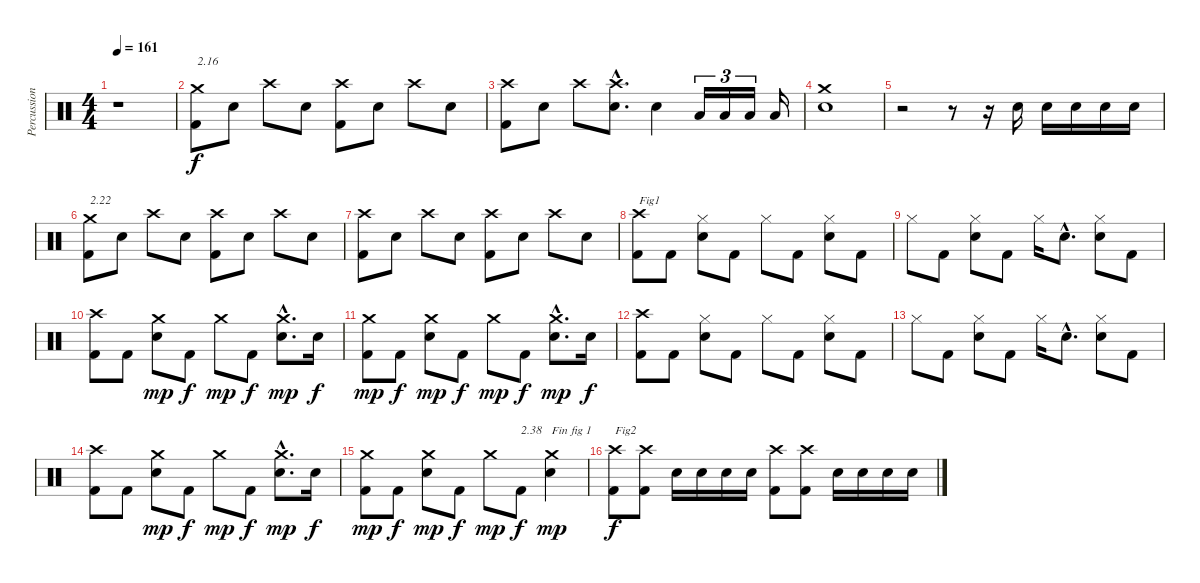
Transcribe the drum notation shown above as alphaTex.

\track ("Percussions" "Percussion") {instrument percussion}
\staff {score}
\articulation defaults
\ts (4 4)
\tempo 161
\clef neutral
\ks c
r.1{dy f} |
("Kick (hit) 2" "Crash medium (hit)").8{txt "2.16"} "Electric Snare (hit)".8 "Crash high (hit)".8 "Electric Snare (hit)".8 ("Kick (hit) 2" "Crash high (hit)").8 "Electric Snare (hit)".8 "Crash high (hit)".8 "Electric Snare (hit)".8 |
("Kick (hit) 2" "Crash high (hit)").8 "Electric Snare (hit)".8 "Crash high (hit)".8 ("Electric Snare (hit)"{hac} "Crash high (hit)"{hac}).8{d} "Electric Snare (hit)".4 "Low Floor Tom (hit)".16{tu (3 2)} "Low Floor Tom (hit)".16{tu (3 2)} "Low Floor Tom (hit)".16{tu (3 2)} "Low Floor Tom (hit)".16 |
("Electric Snare (hit)" "Crash medium (hit)").1 |
r.2 r.8 r.16 "Electric Snare (hit)".16 "Electric Snare (hit)".16 "Electric Snare (hit)".16 "Electric Snare (hit)".16 "Electric Snare (hit)".16 |
("Kick (hit) 2" "Crash medium (hit)").8{txt "2.22"} "Electric Snare (hit)".8 "Crash high (hit)".8 "Electric Snare (hit)".8 ("Kick (hit) 2" "Crash high (hit)").8 "Electric Snare (hit)".8 "Crash high (hit)".8 "Electric Snare (hit)".8 |
("Kick (hit) 2" "Crash high (hit)").8 "Electric Snare (hit)".8 "Crash high (hit)".8 "Electric Snare (hit)".8 ("Kick (hit) 2" "Crash high (hit)").8 "Electric Snare (hit)".8 "Crash high (hit)".8 "Electric Snare (hit)".8 |
("Kick (hit) 2" "Crash high (hit)").8{txt "Fig1"} "Kick (hit) 2".8 ("Electric Snare (hit)" "Hi-Hat (closed)").8 "Kick (hit) 2".8 "Hi-Hat (closed)".8 "Kick (hit) 2".8 ("Electric Snare (hit)" "Hi-Hat (closed)").8 "Kick (hit) 2".8 |
"Hi-Hat (closed)".8 "Kick (hit) 2".8 ("Electric Snare (hit)" "Hi-Hat (closed)").8 "Kick (hit) 2".8 "Hi-Hat (closed)".16 "Electric Snare (hit)"{hac}.8{d} ("Electric Snare (hit)" "Hi-Hat (closed)").8 "Kick (hit) 2".8 |
("Kick (hit) 2" "Crash high (hit)").8 "Kick (hit) 2".8 ("Electric Snare (hit)" "Crash medium (hit)").8{dy mp} "Kick (hit) 2".8{dy f} "Crash medium (hit)".8{dy mp} "Kick (hit) 2".8{dy f} ("Electric Snare (hit)"{hac} "Crash medium (hit)"{hac}).8{d dy mp} "Electric Snare (hit)".16{dy f} |
("Kick (hit) 2" "Crash medium (hit)").8{dy mp} "Kick (hit) 2".8{dy f} ("Electric Snare (hit)" "Crash medium (hit)").8{dy mp} "Kick (hit) 2".8{dy f} "Crash medium (hit)".8{dy mp} "Kick (hit) 2".8{dy f} ("Electric Snare (hit)"{hac} "Crash medium (hit)"{hac}).8{d dy mp} "Electric Snare (hit)".16{dy f} |
("Kick (hit) 2" "Crash high (hit)").8 "Kick (hit) 2".8 ("Electric Snare (hit)" "Hi-Hat (closed)").8 "Kick (hit) 2".8 "Hi-Hat (closed)".8 "Kick (hit) 2".8 ("Electric Snare (hit)" "Hi-Hat (closed)").8 "Kick (hit) 2".8 |
"Hi-Hat (closed)".8 "Kick (hit) 2".8 ("Electric Snare (hit)" "Hi-Hat (closed)").8 "Kick (hit) 2".8 "Hi-Hat (closed)".16 "Electric Snare (hit)"{hac}.8{d} ("Electric Snare (hit)" "Hi-Hat (closed)").8 "Kick (hit) 2".8 |
("Kick (hit) 2" "Crash high (hit)").8 "Kick (hit) 2".8 ("Electric Snare (hit)" "Crash medium (hit)").8{dy mp} "Kick (hit) 2".8{dy f} "Crash medium (hit)".8{dy mp} "Kick (hit) 2".8{dy f} ("Electric Snare (hit)"{hac} "Crash medium (hit)"{hac}).8{d dy mp} "Electric Snare (hit)".16{dy f} |
("Kick (hit) 2" "Crash medium (hit)").8{dy mp} "Kick (hit) 2".8{dy f} ("Electric Snare (hit)" "Crash medium (hit)").8{dy mp} "Kick (hit) 2".8{dy f} "Crash medium (hit)".8{dy mp} "Kick (hit) 2".8{txt "2.38" dy f} ("Electric Snare (hit)" "Crash medium (hit)").4{txt "Fin fig 1" dy mp} |
("Kick (hit) 2" "Crash high (hit)").8{txt "Fig2" dy f} ("Kick (hit) 2" "Crash high (hit)").8 "Electric Snare (hit)".16 "Electric Snare (hit)".16 "Electric Snare (hit)".16 "Electric Snare (hit)".16 ("Kick (hit) 2" "Crash high (hit)").8 ("Kick (hit) 2" "Crash high (hit)").8 "Electric Snare (hit)".16 "Electric Snare (hit)".16 "Electric Snare (hit)".16 "Electric Snare (hit)".16
